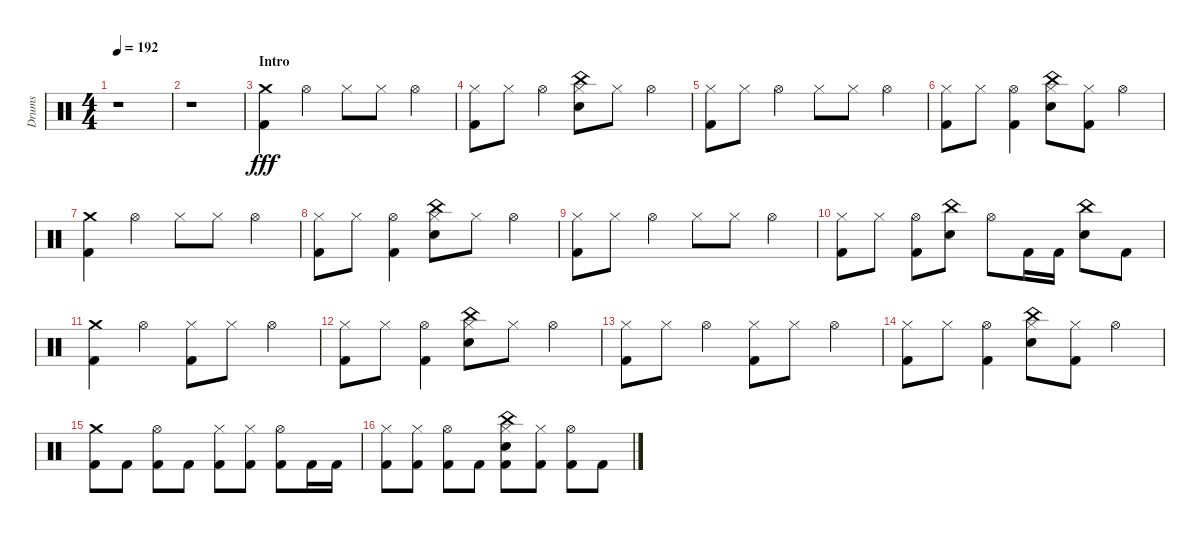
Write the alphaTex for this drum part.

\track ("Drums" "Drums") {instrument percussion}
\staff {score}
\articulation defaults
\ts (4 4)
\tempo 192
\clef neutral
\ks aminor
r.1{dy fff} |
r.1 |
\section ("" "Intro")
("Kick (hit) 2" "Crash medium (hit)").4 "Hi-Hat (open)".4 "Hi-Hat (closed)".8 "Hi-Hat (closed)".8 "Hi-Hat (open)".4 |
("Kick (hit) 2" "Hi-Hat (closed)").8 "Hi-Hat (closed)".8 "Hi-Hat (open)".4 ("Snare (hit) 2" "Hi-Hat (closed)" "China (hit)").8 "Hi-Hat (closed)".8 "Hi-Hat (open)".4 |
("Kick (hit) 2" "Hi-Hat (closed)").8 "Hi-Hat (closed)".8 "Hi-Hat (open)".4 "Hi-Hat (closed)".8 "Hi-Hat (closed)".8 "Hi-Hat (open)".4 |
("Kick (hit) 2" "Hi-Hat (closed)").8 "Hi-Hat (closed)".8 ("Kick (hit) 2" "Hi-Hat (open)").4 ("Snare (hit) 2" "Hi-Hat (closed)" "China (hit)").8 ("Kick (hit) 2" "Hi-Hat (closed)").8 "Hi-Hat (open)".4 |
("Kick (hit) 2" "Crash medium (hit)").4 "Hi-Hat (open)".4 "Hi-Hat (closed)".8 "Hi-Hat (closed)".8 "Hi-Hat (open)".4 |
("Kick (hit) 2" "Hi-Hat (closed)").8 "Hi-Hat (closed)".8 ("Kick (hit) 2" "Hi-Hat (open)").4 ("Snare (hit) 2" "Hi-Hat (closed)" "China (hit)").8 "Hi-Hat (closed)".8 "Hi-Hat (open)".4 |
("Kick (hit) 2" "Hi-Hat (closed)").8 "Hi-Hat (closed)".8 "Hi-Hat (open)".4 "Hi-Hat (closed)".8 "Hi-Hat (closed)".8 "Hi-Hat (open)".4 |
("Kick (hit) 2" "Hi-Hat (closed)").8 "Hi-Hat (closed)".8 ("Kick (hit) 2" "Hi-Hat (open)").8 ("Snare (hit) 2" "China (hit)").8 "Hi-Hat (open)".8 "Kick (hit) 2".16 "Kick (hit) 2".16 ("Snare (hit) 2" "China (hit)").8 "Kick (hit) 2".8 |
("Kick (hit) 2" "Crash medium (hit)").4 "Hi-Hat (open)".4 ("Kick (hit) 2" "Hi-Hat (closed)").8 "Hi-Hat (closed)".8 "Hi-Hat (open)".4 |
("Kick (hit) 2" "Hi-Hat (closed)").8 "Hi-Hat (closed)".8 ("Kick (hit) 2" "Hi-Hat (open)").4 ("Snare (hit) 2" "Hi-Hat (closed)" "China (hit)").8 "Hi-Hat (closed)".8 "Hi-Hat (open)".4 |
("Kick (hit) 2" "Hi-Hat (closed)").8 "Hi-Hat (closed)".8 "Hi-Hat (open)".4 ("Kick (hit) 2" "Hi-Hat (closed)").8 "Hi-Hat (closed)".8 "Hi-Hat (open)".4 |
("Kick (hit) 2" "Hi-Hat (closed)").8 "Hi-Hat (closed)".8 ("Kick (hit) 2" "Hi-Hat (open)").4 ("Snare (hit) 2" "Hi-Hat (closed)" "China (hit)").8 ("Kick (hit) 2" "Hi-Hat (closed)").8 "Hi-Hat (open)".4 |
("Kick (hit) 2" "Crash medium (hit)").8 "Kick (hit) 2".8 ("Kick (hit) 2" "Hi-Hat (open)").8 "Kick (hit) 2".8 ("Kick (hit) 2" "Hi-Hat (closed)").8 ("Kick (hit) 2" "Hi-Hat (closed)").8 ("Kick (hit) 2" "Hi-Hat (open)").8 "Kick (hit) 2".16 "Kick (hit) 2".16 |
("Kick (hit) 2" "Hi-Hat (closed)").8 ("Kick (hit) 2" "Hi-Hat (closed)").8 ("Kick (hit) 2" "Hi-Hat (open)").8 "Kick (hit) 2".8 ("Snare (hit) 2" "Hi-Hat (closed)" "Kick (hit) 2" "China (hit)").8 ("Kick (hit) 2" "Hi-Hat (closed)").8 ("Kick (hit) 2" "Hi-Hat (open)").8 "Kick (hit) 2".8
